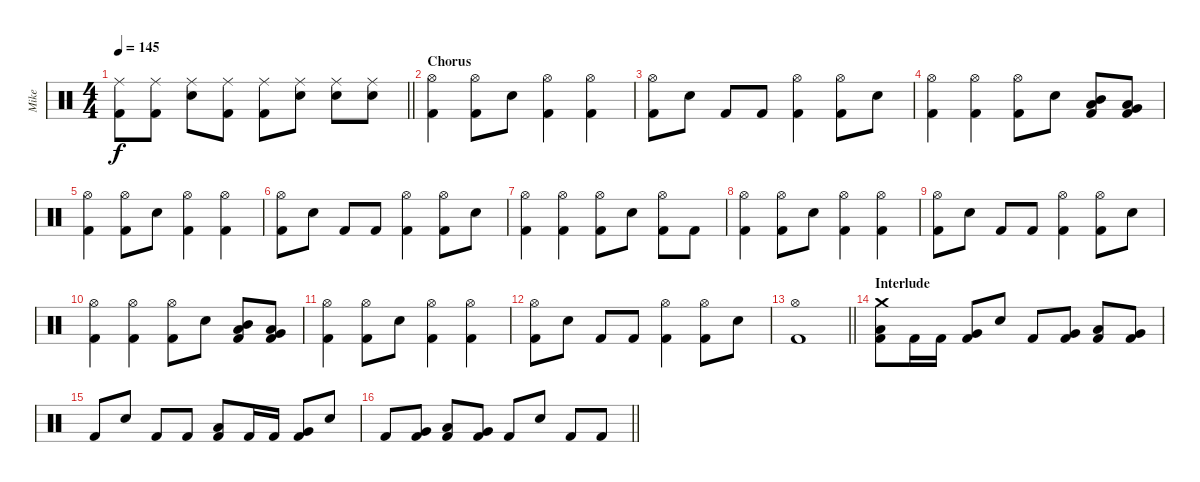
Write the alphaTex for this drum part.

\track ("Mike" "Mike") {instrument percussion}
\staff {score}
\articulation defaults
\ts (4 4)
\tempo 145
\clef neutral
\barLineRight lightlight
\ks c
("Ride (middle)" "Kick (hit) 2").8{dy f} ("Ride (middle)" "Kick (hit) 2").8 ("Ride (middle)" "Snare (hit) 2").8 ("Ride (middle)" "Kick (hit) 2").8 ("Ride (middle)" "Kick (hit) 2").8 ("Ride (middle)" "Snare (hit) 2").8 ("Ride (middle)" "Snare (hit) 2").8 ("Ride (middle)" "Snare (hit) 2").8 |
\section ("" "Chorus")
("Hi-Hat (open)" "Kick (hit) 2").4 ("Hi-Hat (open)" "Kick (hit) 2").8 "Snare (hit) 2".8 ("Hi-Hat (open)" "Kick (hit) 2").4 ("Hi-Hat (open)" "Kick (hit) 2").4 |
("Hi-Hat (open)" "Kick (hit) 2").8 "Snare (hit) 2".8 "Kick (hit) 2".8 "Kick (hit) 2".8 ("Hi-Hat (open)" "Kick (hit) 2").4 ("Hi-Hat (open)" "Kick (hit) 2").8 "Snare (hit) 2".8 |
("Hi-Hat (open)" "Kick (hit) 2").4 ("Hi-Hat (open)" "Kick (hit) 2").4 ("Hi-Hat (open)" "Kick (hit) 2").8 "Snare (hit) 2".8 ("Mid Tom (hit)" "Low Tom (hit)" "Kick (hit) 2").8 ("Low Tom (hit)" "Very Low Tom (hit)" "Kick (hit) 2").8 |
("Hi-Hat (open)" "Kick (hit) 2").4 ("Hi-Hat (open)" "Kick (hit) 2").8 "Snare (hit) 2".8 ("Hi-Hat (open)" "Kick (hit) 2").4 ("Hi-Hat (open)" "Kick (hit) 2").4 |
("Hi-Hat (open)" "Kick (hit) 2").8 "Snare (hit) 2".8 "Kick (hit) 2".8 "Kick (hit) 2".8 ("Hi-Hat (open)" "Kick (hit) 2").4 ("Hi-Hat (open)" "Kick (hit) 2").8 "Snare (hit) 2".8 |
("Hi-Hat (open)" "Kick (hit) 2").4 ("Hi-Hat (open)" "Kick (hit) 2").4 ("Hi-Hat (open)" "Kick (hit) 2").8 "Snare (hit) 2".8 ("Hi-Hat (open)" "Kick (hit) 2").8 "Kick (hit) 2".8 |
("Hi-Hat (open)" "Kick (hit) 2").4 ("Hi-Hat (open)" "Kick (hit) 2").8 "Snare (hit) 2".8 ("Hi-Hat (open)" "Kick (hit) 2").4 ("Hi-Hat (open)" "Kick (hit) 2").4 |
("Hi-Hat (open)" "Kick (hit) 2").8 "Snare (hit) 2".8 "Kick (hit) 2".8 "Kick (hit) 2".8 ("Hi-Hat (open)" "Kick (hit) 2").4 ("Hi-Hat (open)" "Kick (hit) 2").8 "Snare (hit) 2".8 |
("Hi-Hat (open)" "Kick (hit) 2").4 ("Hi-Hat (open)" "Kick (hit) 2").4 ("Hi-Hat (open)" "Kick (hit) 2").8 "Snare (hit) 2".8 ("Mid Tom (hit)" "Low Tom (hit)" "Kick (hit) 2").8 ("Low Tom (hit)" "Very Low Tom (hit)" "Kick (hit) 2").8 |
("Hi-Hat (open)" "Kick (hit) 2").4 ("Hi-Hat (open)" "Kick (hit) 2").8 "Snare (hit) 2".8 ("Hi-Hat (open)" "Kick (hit) 2").4 ("Hi-Hat (open)" "Kick (hit) 2").4 |
("Hi-Hat (open)" "Kick (hit) 2").8 "Snare (hit) 2".8 "Kick (hit) 2".8 "Kick (hit) 2".8 ("Hi-Hat (open)" "Kick (hit) 2").4 ("Hi-Hat (open)" "Kick (hit) 2").8 "Snare (hit) 2".8 |
\barLineRight lightlight
("Hi-Hat (open)" "Kick (hit) 2").1 |
\section ("" "Interlude")
("Crash medium (hit)" "Low Tom (hit)" "Kick (hit) 2").8 "Kick (hit) 2".16 "Kick (hit) 2".16 ("Very Low Tom (hit)" "Kick (hit) 2").8 "Snare (hit) 2".8 "Kick (hit) 2".8 ("Very Low Tom (hit)" "Kick (hit) 2").8 ("Low Floor Tom (hit)" "Kick (hit) 2").8 ("Very Low Tom (hit)" "Kick (hit) 2").8 |
"Kick (hit) 2".8 "Snare (hit) 2".8 "Kick (hit) 2".8 "Kick (hit) 2".8 ("Low Tom (hit)" "Kick (hit) 2").8 "Kick (hit) 2".16 "Kick (hit) 2".16 ("Very Low Tom (hit)" "Kick (hit) 2").8 "Snare (hit) 2".8 |
\barLineRight lightlight "Kick (hit) 2".8
("Very Low Tom (hit)" "Kick (hit) 2").8 ("Low Floor Tom (hit)" "Kick (hit) 2").8 ("Very Low Tom (hit)" "Kick (hit) 2").8 "Kick (hit) 2".8 "Snare (hit) 2".8 "Kick (hit) 2".8 "Kick (hit) 2".8
